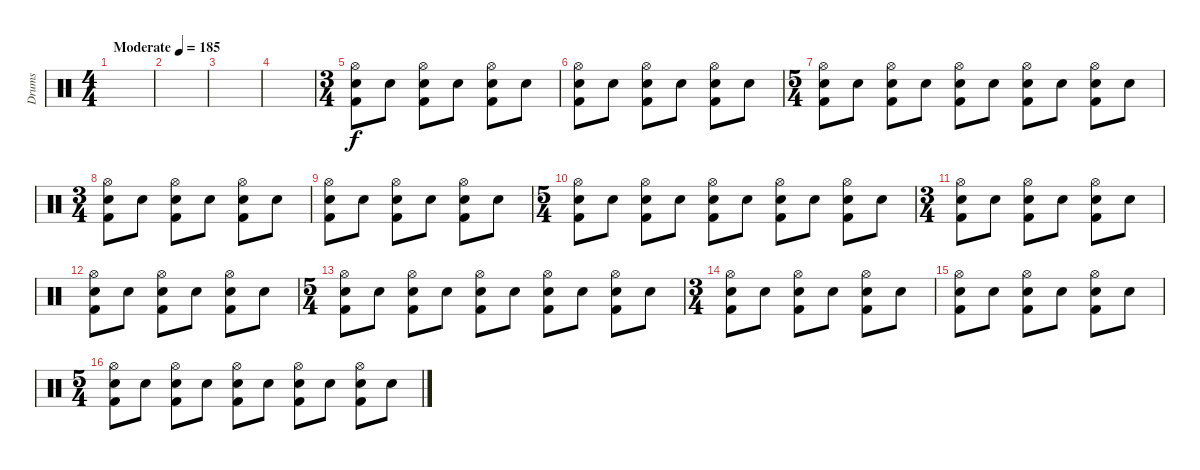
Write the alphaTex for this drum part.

\track ("Drums" "Drums") {instrument percussion}
\staff {score}
\articulation defaults
\ts (4 4)
\tempo (185 "Moderate")
\clef neutral
\ks c
|
|
|
|
\ts (3 4)
("Hi-Hat (open)" "Electric Snare (hit)" "Kick (hit) 2").8 "Electric Snare (hit)".8 ("Hi-Hat (open)" "Electric Snare (hit)" "Kick (hit) 2").8 "Electric Snare (hit)".8 ("Hi-Hat (open)" "Electric Snare (hit)" "Kick (hit) 2").8 "Electric Snare (hit)".8 |
("Hi-Hat (open)" "Electric Snare (hit)" "Kick (hit) 2").8 "Electric Snare (hit)".8 ("Hi-Hat (open)" "Electric Snare (hit)" "Kick (hit) 2").8 "Electric Snare (hit)".8 ("Hi-Hat (open)" "Electric Snare (hit)" "Kick (hit) 2").8 "Electric Snare (hit)".8 |
\ts (5 4)
("Hi-Hat (open)" "Electric Snare (hit)" "Kick (hit) 2").8 "Electric Snare (hit)".8 ("Hi-Hat (open)" "Electric Snare (hit)" "Kick (hit) 2").8 "Electric Snare (hit)".8 ("Hi-Hat (open)" "Electric Snare (hit)" "Kick (hit) 2").8 "Electric Snare (hit)".8 ("Hi-Hat (open)" "Electric Snare (hit)" "Kick (hit) 2").8 "Electric Snare (hit)".8 ("Hi-Hat (open)" "Electric Snare (hit)" "Kick (hit) 2").8 "Electric Snare (hit)".8 |
\ts (3 4)
("Hi-Hat (open)" "Electric Snare (hit)" "Kick (hit) 2").8 "Electric Snare (hit)".8 ("Hi-Hat (open)" "Electric Snare (hit)" "Kick (hit) 2").8 "Electric Snare (hit)".8 ("Hi-Hat (open)" "Electric Snare (hit)" "Kick (hit) 2").8 "Electric Snare (hit)".8 |
("Hi-Hat (open)" "Electric Snare (hit)" "Kick (hit) 2").8 "Electric Snare (hit)".8 ("Hi-Hat (open)" "Electric Snare (hit)" "Kick (hit) 2").8 "Electric Snare (hit)".8 ("Hi-Hat (open)" "Electric Snare (hit)" "Kick (hit) 2").8 "Electric Snare (hit)".8 |
\ts (5 4)
("Hi-Hat (open)" "Electric Snare (hit)" "Kick (hit) 2").8 "Electric Snare (hit)".8 ("Hi-Hat (open)" "Electric Snare (hit)" "Kick (hit) 2").8 "Electric Snare (hit)".8 ("Hi-Hat (open)" "Electric Snare (hit)" "Kick (hit) 2").8 "Electric Snare (hit)".8 ("Hi-Hat (open)" "Electric Snare (hit)" "Kick (hit) 2").8 "Electric Snare (hit)".8 ("Hi-Hat (open)" "Electric Snare (hit)" "Kick (hit) 2").8 "Electric Snare (hit)".8 |
\ts (3 4)
("Hi-Hat (open)" "Electric Snare (hit)" "Kick (hit) 2").8 "Electric Snare (hit)".8 ("Hi-Hat (open)" "Electric Snare (hit)" "Kick (hit) 2").8 "Electric Snare (hit)".8 ("Hi-Hat (open)" "Electric Snare (hit)" "Kick (hit) 2").8 "Electric Snare (hit)".8 |
("Hi-Hat (open)" "Electric Snare (hit)" "Kick (hit) 2").8 "Electric Snare (hit)".8 ("Hi-Hat (open)" "Electric Snare (hit)" "Kick (hit) 2").8 "Electric Snare (hit)".8 ("Hi-Hat (open)" "Electric Snare (hit)" "Kick (hit) 2").8 "Electric Snare (hit)".8 |
\ts (5 4)
("Hi-Hat (open)" "Electric Snare (hit)" "Kick (hit) 2").8 "Electric Snare (hit)".8 ("Hi-Hat (open)" "Electric Snare (hit)" "Kick (hit) 2").8 "Electric Snare (hit)".8 ("Hi-Hat (open)" "Electric Snare (hit)" "Kick (hit) 2").8 "Electric Snare (hit)".8 ("Hi-Hat (open)" "Electric Snare (hit)" "Kick (hit) 2").8 "Electric Snare (hit)".8 ("Hi-Hat (open)" "Electric Snare (hit)" "Kick (hit) 2").8 "Electric Snare (hit)".8 |
\ts (3 4)
("Hi-Hat (open)" "Electric Snare (hit)" "Kick (hit) 2").8 "Electric Snare (hit)".8 ("Hi-Hat (open)" "Electric Snare (hit)" "Kick (hit) 2").8 "Electric Snare (hit)".8 ("Hi-Hat (open)" "Electric Snare (hit)" "Kick (hit) 2").8 "Electric Snare (hit)".8 |
("Hi-Hat (open)" "Electric Snare (hit)" "Kick (hit) 2").8 "Electric Snare (hit)".8 ("Hi-Hat (open)" "Electric Snare (hit)" "Kick (hit) 2").8 "Electric Snare (hit)".8 ("Hi-Hat (open)" "Electric Snare (hit)" "Kick (hit) 2").8 "Electric Snare (hit)".8 |
\ts (5 4)
("Hi-Hat (open)" "Electric Snare (hit)" "Kick (hit) 2").8 "Electric Snare (hit)".8 ("Hi-Hat (open)" "Electric Snare (hit)" "Kick (hit) 2").8 "Electric Snare (hit)".8 ("Hi-Hat (open)" "Electric Snare (hit)" "Kick (hit) 2").8 "Electric Snare (hit)".8 ("Hi-Hat (open)" "Electric Snare (hit)" "Kick (hit) 2").8 "Electric Snare (hit)".8 ("Hi-Hat (open)" "Electric Snare (hit)" "Kick (hit) 2").8 "Electric Snare (hit)".8
